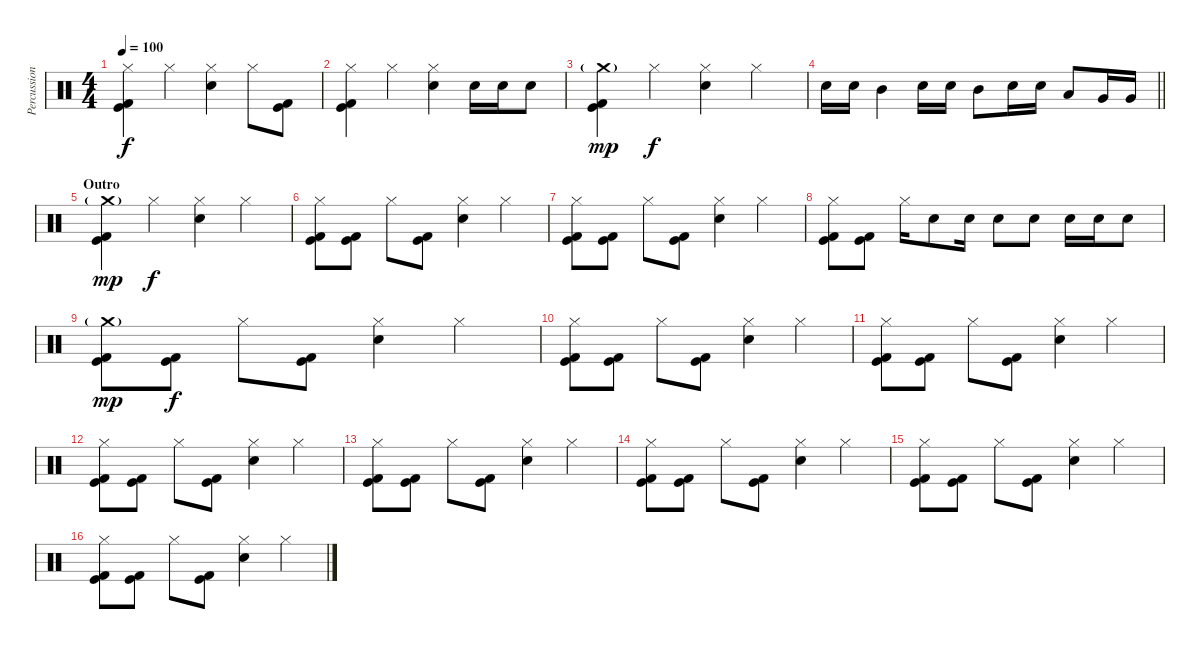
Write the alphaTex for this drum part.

\track ("Percussion" "Percussion") {instrument percussion}
\staff {score}
\articulation defaults
\ts (4 4)
\section ("" "")
\tempo 100
\clef neutral
\ks c
("Hi-Hat (closed)" "Kick (hit)" "Kick (hit) 2").4{dy f} "Hi-Hat (closed)".4 ("Hi-Hat (closed)" "Electric Snare (hit)").4 "Hi-Hat (closed)".8 ("Kick (hit)" "Kick (hit) 2").8 |
("Hi-Hat (closed)" "Kick (hit)" "Kick (hit) 2").4 "Hi-Hat (closed)".4 ("Hi-Hat (closed)" "Electric Snare (hit)").4 "Electric Snare (hit)".16 "Electric Snare (hit)".16 "Electric Snare (hit)".8 |
("Crash medium (hit)"{g} "Kick (hit)" "Kick (hit) 2").4{dy mp} "Hi-Hat (closed)".4{dy f} ("Hi-Hat (closed)" "Electric Snare (hit)").4 "Hi-Hat (closed)".4 |
\barLineRight lightlight "Electric Snare (hit)".16 "Electric Snare (hit)".16 "Mid Tom (hit)".4 "Electric Snare (hit)".16 "Electric Snare (hit)".16 "Mid Tom (hit)".8 "Electric Snare (hit)".16 "Electric Snare (hit)".16 "Low Tom (hit)".8 "Very Low Tom (hit)".16 "Very Low Tom (hit)".16
|
\section ("" "Outro")
("Crash medium (hit)"{g} "Kick (hit)" "Kick (hit) 2").4{dy mp} "Hi-Hat (closed)".4{dy f} ("Hi-Hat (closed)" "Electric Snare (hit)").4 "Hi-Hat (closed)".4 |
("Hi-Hat (closed)" "Kick (hit)" "Kick (hit) 2").8 ("Kick (hit)" "Kick (hit) 2").8 "Hi-Hat (closed)".8 ("Kick (hit)" "Kick (hit) 2").8 ("Hi-Hat (closed)" "Electric Snare (hit)").4 "Hi-Hat (closed)".4 |
("Hi-Hat (closed)" "Kick (hit)" "Kick (hit) 2").8 ("Kick (hit)" "Kick (hit) 2").8 "Hi-Hat (closed)".8 ("Kick (hit)" "Kick (hit) 2").8 ("Hi-Hat (closed)" "Electric Snare (hit)").4 "Hi-Hat (closed)".4 |
("Hi-Hat (closed)" "Kick (hit)" "Kick (hit) 2").8 ("Kick (hit)" "Kick (hit) 2").8 "Hi-Hat (closed)".16 "Electric Snare (hit)".8 "Electric Snare (hit)".16 "Electric Snare (hit)".8 "Electric Snare (hit)".8 "Electric Snare (hit)".16 "Electric Snare (hit)".16 "Electric Snare (hit)".8 |
("Crash medium (hit)"{g} "Kick (hit)" "Kick (hit) 2").8{dy mp} ("Kick (hit)" "Kick (hit) 2").8{dy f} "Hi-Hat (closed)".8 ("Kick (hit)" "Kick (hit) 2").8 ("Hi-Hat (closed)" "Electric Snare (hit)").4 "Hi-Hat (closed)".4 |
("Hi-Hat (closed)" "Kick (hit)" "Kick (hit) 2").8 ("Kick (hit)" "Kick (hit) 2").8 "Hi-Hat (closed)".8 ("Kick (hit)" "Kick (hit) 2").8 ("Hi-Hat (closed)" "Electric Snare (hit)").4 "Hi-Hat (closed)".4 |
("Hi-Hat (closed)" "Kick (hit)" "Kick (hit) 2").8 ("Kick (hit)" "Kick (hit) 2").8 "Hi-Hat (closed)".8 ("Kick (hit)" "Kick (hit) 2").8 ("Hi-Hat (closed)" "Electric Snare (hit)").4 "Hi-Hat (closed)".4 |
("Hi-Hat (closed)" "Kick (hit)" "Kick (hit) 2").8 ("Kick (hit)" "Kick (hit) 2").8 "Hi-Hat (closed)".8 ("Kick (hit)" "Kick (hit) 2").8 ("Hi-Hat (closed)" "Electric Snare (hit)").4 "Hi-Hat (closed)".4 |
("Hi-Hat (closed)" "Kick (hit)" "Kick (hit) 2").8{volume 12} ("Kick (hit)" "Kick (hit) 2").8 "Hi-Hat (closed)".8 ("Kick (hit)" "Kick (hit) 2").8 ("Hi-Hat (closed)" "Electric Snare (hit)").4 "Hi-Hat (closed)".4 |
("Hi-Hat (closed)" "Kick (hit)" "Kick (hit) 2").8 ("Kick (hit)" "Kick (hit) 2").8 "Hi-Hat (closed)".8 ("Kick (hit)" "Kick (hit) 2").8 ("Hi-Hat (closed)" "Electric Snare (hit)").4 "Hi-Hat (closed)".4 |
("Hi-Hat (closed)" "Kick (hit)" "Kick (hit) 2").8 ("Kick (hit)" "Kick (hit) 2").8 "Hi-Hat (closed)".8 ("Kick (hit)" "Kick (hit) 2").8 ("Hi-Hat (closed)" "Electric Snare (hit)").4 "Hi-Hat (closed)".4 |
("Hi-Hat (closed)" "Kick (hit)" "Kick (hit) 2").8 ("Kick (hit)" "Kick (hit) 2").8 "Hi-Hat (closed)".8 ("Kick (hit)" "Kick (hit) 2").8 ("Hi-Hat (closed)" "Electric Snare (hit)").4 "Hi-Hat (closed)".4
